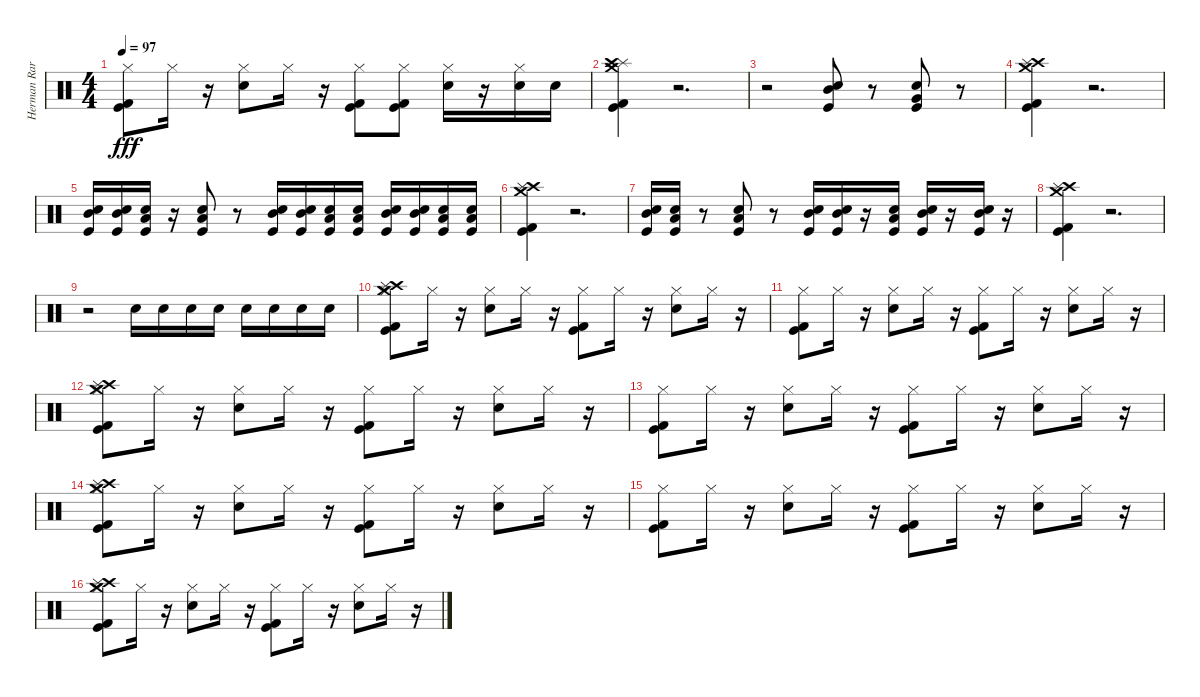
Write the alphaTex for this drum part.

\track ("Herman Rarebell - Drums and Percussion" "Herman Rar") {instrument percussion}
\staff {score}
\articulation defaults
\ts (4 4)
\tempo 97
\clef neutral
\ks c
("Kick (hit) 2" "Kick (hit)" "Hi-Hat (closed)").8{dy fff} "Hi-Hat (closed)".16 r.16 ("Snare (hit) 2" "Hi-Hat (closed)").8 "Hi-Hat (closed)".16 r.16 ("Kick (hit) 2" "Kick (hit)" "Hi-Hat (closed)").8 ("Hi-Hat (closed)" "Kick (hit) 2" "Kick (hit)").8 ("Hi-Hat (closed)" "Snare (hit) 2").16 r.16 ("Hi-Hat (closed)" "Snare (hit) 2").16 "Snare (hit) 2".16 |
("Crash medium (hit)" "Splash (hit)" "Crash high (hit)" "Kick (hit) 2" "Kick (hit)").4 r.2{d} |
r.2 ("Mid Tom (hit)" "Kick (hit)" "Electric Snare (hit)").8 r.8 ("Very Low Tom (hit)" "Kick (hit)" "Electric Snare (hit)").8 r.8 |
("Kick (hit) 2" "Kick (hit)" "Crash high (hit)" "Splash (hit)" "Crash medium (hit)").4 r.2{d} |
("Kick (hit)" "Mid Tom (hit)" "Electric Snare (hit)").16 ("Mid Tom (hit)" "Kick (hit)" "Electric Snare (hit)").16 ("Low Tom (hit)" "Kick (hit)" "Electric Snare (hit)").16 r.16 ("Kick (hit)" "Low Floor Tom (hit)" "Electric Snare (hit)").8 r.8 ("Mid Tom (hit)" "Kick (hit)" "Electric Snare (hit)").16 ("Mid Tom (hit)" "Kick (hit)" "Electric Snare (hit)").16 ("Low Tom (hit)" "Kick (hit)" "Electric Snare (hit)").16 ("Kick (hit)" "Low Floor Tom (hit)" "Electric Snare (hit)").16 ("Mid Tom (hit)" "Kick (hit)" "Electric Snare (hit)").16 ("Mid Tom (hit)" "Kick (hit)" "Electric Snare (hit)").16 ("Low Tom (hit)" "Kick (hit)" "Electric Snare (hit)").16 ("Kick (hit)" "Low Floor Tom (hit)" "Electric Snare (hit)").16 |
("Kick (hit)" "Kick (hit) 2" "Crash high (hit)" "Splash (hit)" "Crash medium (hit)").4 r.2{d} |
("Mid Tom (hit)" "Kick (hit)" "Electric Snare (hit)").16 ("Low Tom (hit)" "Kick (hit)" "Electric Snare (hit)").16 r.8 ("Kick (hit)" "Low Floor Tom (hit)" "Electric Snare (hit)").8 r.8 ("Mid Tom (hit)" "Kick (hit)" "Electric Snare (hit)").16 ("Mid Tom (hit)" "Kick (hit)" "Electric Snare (hit)").16 r.16 ("Kick (hit)" "Low Floor Tom (hit)" "Electric Snare (hit)").16 ("Mid Tom (hit)" "Kick (hit)" "Electric Snare (hit)").16 r.16 ("Mid Tom (hit)" "Kick (hit)" "Electric Snare (hit)").16 r.16 |
("Kick (hit)" "Kick (hit) 2" "Crash high (hit)" "Splash (hit)" "Crash medium (hit)").4 r.2{d} |
r.2 "Snare (hit) 2".16 "Snare (hit) 2".16 "Snare (hit) 2".16 "Snare (hit) 2".16 "Snare (hit) 2".16 "Snare (hit) 2".16 "Snare (hit) 2".16 "Snare (hit) 2".16 |
("Hi-Hat (closed)" "Crash high (hit)" "Splash (hit)" "Crash medium (hit)" "Kick (hit)" "Kick (hit) 2").8 "Hi-Hat (closed)".16 r.16 ("Snare (hit) 2" "Hi-Hat (closed)").8 "Hi-Hat (closed)".16 r.16 ("Kick (hit) 2" "Kick (hit)" "Hi-Hat (closed)").8 "Hi-Hat (closed)".16 r.16 ("Snare (hit) 2" "Hi-Hat (closed)").8 "Hi-Hat (closed)".16 r.16 |
("Hi-Hat (closed)" "Kick (hit)" "Kick (hit) 2").8 "Hi-Hat (closed)".16 r.16 ("Snare (hit) 2" "Hi-Hat (closed)").8 "Hi-Hat (closed)".16 r.16 ("Kick (hit) 2" "Kick (hit)" "Hi-Hat (closed)").8 "Hi-Hat (closed)".16 r.16 ("Snare (hit) 2" "Hi-Hat (closed)").8 "Hi-Hat (closed)".16 r.16 |
("Hi-Hat (closed)" "Crash high (hit)" "Splash (hit)" "Crash medium (hit)" "Kick (hit)" "Kick (hit) 2").8 "Hi-Hat (closed)".16 r.16 ("Snare (hit) 2" "Hi-Hat (closed)").8 "Hi-Hat (closed)".16 r.16 ("Kick (hit) 2" "Kick (hit)" "Hi-Hat (closed)").8 "Hi-Hat (closed)".16 r.16 ("Snare (hit) 2" "Hi-Hat (closed)").8 "Hi-Hat (closed)".16 r.16 |
("Hi-Hat (closed)" "Kick (hit)" "Kick (hit) 2").8 "Hi-Hat (closed)".16 r.16 ("Snare (hit) 2" "Hi-Hat (closed)").8 "Hi-Hat (closed)".16 r.16 ("Kick (hit) 2" "Kick (hit)" "Hi-Hat (closed)").8 "Hi-Hat (closed)".16 r.16 ("Snare (hit) 2" "Hi-Hat (closed)").8 "Hi-Hat (closed)".16 r.16 |
("Hi-Hat (closed)" "Crash high (hit)" "Splash (hit)" "Crash medium (hit)" "Kick (hit)" "Kick (hit) 2").8 "Hi-Hat (closed)".16 r.16 ("Snare (hit) 2" "Hi-Hat (closed)").8 "Hi-Hat (closed)".16 r.16 ("Kick (hit) 2" "Kick (hit)" "Hi-Hat (closed)").8 "Hi-Hat (closed)".16 r.16 ("Snare (hit) 2" "Hi-Hat (closed)").8 "Hi-Hat (closed)".16 r.16 |
("Hi-Hat (closed)" "Kick (hit)" "Kick (hit) 2").8 "Hi-Hat (closed)".16 r.16 ("Snare (hit) 2" "Hi-Hat (closed)").8 "Hi-Hat (closed)".16 r.16 ("Kick (hit) 2" "Kick (hit)" "Hi-Hat (closed)").8 "Hi-Hat (closed)".16 r.16 ("Snare (hit) 2" "Hi-Hat (closed)").8 "Hi-Hat (closed)".16 r.16 |
("Hi-Hat (closed)" "Crash high (hit)" "Splash (hit)" "Crash medium (hit)" "Kick (hit)" "Kick (hit) 2").8 "Hi-Hat (closed)".16 r.16 ("Snare (hit) 2" "Hi-Hat (closed)").8 "Hi-Hat (closed)".16 r.16 ("Kick (hit) 2" "Kick (hit)" "Hi-Hat (closed)").8 "Hi-Hat (closed)".16 r.16 ("Snare (hit) 2" "Hi-Hat (closed)").8 "Hi-Hat (closed)".16 r.16
